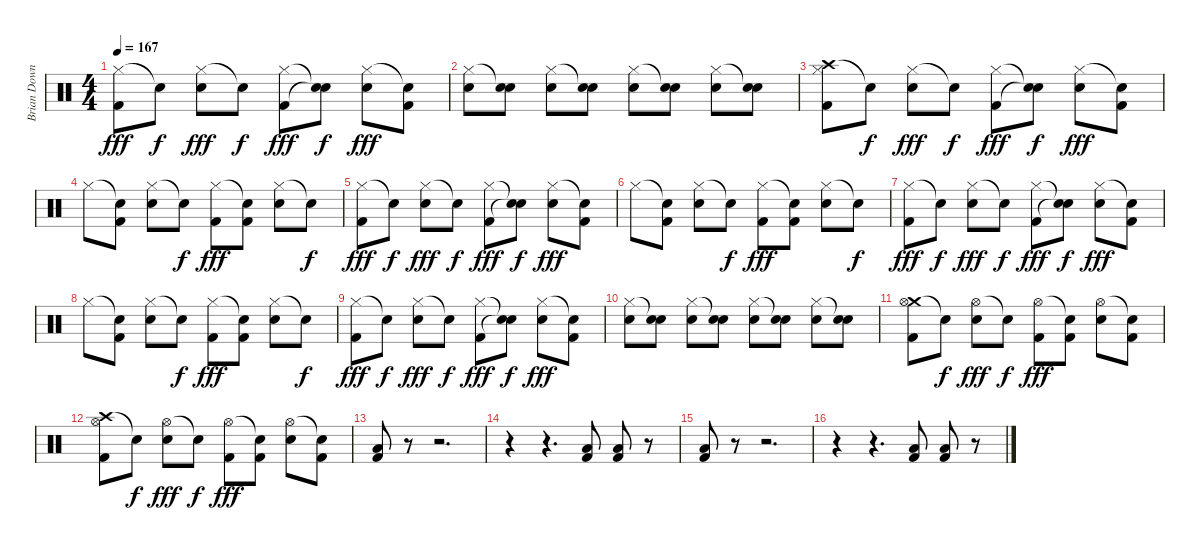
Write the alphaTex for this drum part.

\track ("Brian Downey" "Brian Down") {instrument percussion}
\staff {score}
\articulation defaults
\ts (4 4)
\tempo 167
\clef neutral
\ks c
("Hi-Hat (closed)" "Kick (hit) 2").8{dy fff} "Snare (hit)"{t}.8{dy f} ("Hi-Hat (closed)" "Electric Snare (hit)").8{dy fff} "Snare (hit)"{t}.8{dy f} ("Hi-Hat (closed)" "Kick (hit) 2").8{dy fff} ("Snare (hit)"{t} "Electric Snare (hit)"{t}).8{dy f} ("Hi-Hat (closed)" "Electric Snare (hit)").8{dy fff} ("Snare (hit)"{t} "Kick (hit) 2").8 |
("Hi-Hat (closed)" "Electric Snare (hit)").8 ("Snare (hit)"{t} "Electric Snare (hit)").8 ("Hi-Hat (closed)" "Electric Snare (hit)").8 ("Snare (hit)"{t} "Electric Snare (hit)").8 ("Hi-Hat (closed)" "Electric Snare (hit)").8 ("Snare (hit)"{t} "Electric Snare (hit)").8 ("Hi-Hat (closed)" "Electric Snare (hit)").8 ("Snare (hit)"{t} "Electric Snare (hit)").8 |
("Crash high (hit)" "Hi-Hat (closed)" "Kick (hit) 2").8 "Snare (hit)"{t}.8{dy f} ("Hi-Hat (closed)" "Electric Snare (hit)").8{dy fff} "Snare (hit)"{t}.8{dy f} ("Hi-Hat (closed)" "Kick (hit) 2").8{dy fff} ("Snare (hit)"{t} "Electric Snare (hit)"{t}).8{dy f} ("Hi-Hat (closed)" "Electric Snare (hit)").8{dy fff} ("Snare (hit)"{t} "Kick (hit) 2").8 |
"Hi-Hat (closed)".8 ("Snare (hit)"{t} "Kick (hit) 2").8 ("Hi-Hat (closed)" "Electric Snare (hit)").8 "Snare (hit)"{t}.8{dy f} ("Hi-Hat (closed)" "Kick (hit) 2").8{dy fff} ("Snare (hit)"{t} "Kick (hit) 2").8 ("Hi-Hat (closed)" "Electric Snare (hit)").8 "Snare (hit)"{t}.8{dy f} |
("Hi-Hat (closed)" "Kick (hit) 2").8{dy fff} "Snare (hit)"{t}.8{dy f} ("Hi-Hat (closed)" "Electric Snare (hit)").8{dy fff} "Snare (hit)"{t}.8{dy f} ("Hi-Hat (closed)" "Kick (hit) 2").8{dy fff} ("Snare (hit)"{t} "Electric Snare (hit)"{t}).8{dy f} ("Hi-Hat (closed)" "Electric Snare (hit)").8{dy fff} ("Snare (hit)"{t} "Kick (hit) 2").8 |
"Hi-Hat (closed)".8 ("Snare (hit)"{t} "Kick (hit) 2").8 ("Hi-Hat (closed)" "Electric Snare (hit)").8 "Snare (hit)"{t}.8{dy f} ("Hi-Hat (closed)" "Kick (hit) 2").8{dy fff} ("Snare (hit)"{t} "Kick (hit) 2").8 ("Hi-Hat (closed)" "Electric Snare (hit)").8 "Snare (hit)"{t}.8{dy f} |
("Hi-Hat (closed)" "Kick (hit) 2").8{dy fff} "Snare (hit)"{t}.8{dy f} ("Hi-Hat (closed)" "Electric Snare (hit)").8{dy fff} "Snare (hit)"{t}.8{dy f} ("Hi-Hat (closed)" "Kick (hit) 2").8{dy fff} ("Snare (hit)"{t} "Electric Snare (hit)"{t}).8{dy f} ("Hi-Hat (closed)" "Electric Snare (hit)").8{dy fff} ("Snare (hit)"{t} "Kick (hit) 2").8 |
"Hi-Hat (closed)".8 ("Snare (hit)"{t} "Kick (hit) 2").8 ("Hi-Hat (closed)" "Electric Snare (hit)").8 "Snare (hit)"{t}.8{dy f} ("Hi-Hat (closed)" "Kick (hit) 2").8{dy fff} ("Snare (hit)"{t} "Kick (hit) 2").8 ("Hi-Hat (closed)" "Electric Snare (hit)").8 "Snare (hit)"{t}.8{dy f} |
("Hi-Hat (closed)" "Kick (hit) 2").8{dy fff} "Snare (hit)"{t}.8{dy f} ("Hi-Hat (closed)" "Electric Snare (hit)").8{dy fff} "Snare (hit)"{t}.8{dy f} ("Hi-Hat (closed)" "Kick (hit) 2").8{dy fff} ("Snare (hit)"{t} "Electric Snare (hit)"{t}).8{dy f} ("Hi-Hat (closed)" "Electric Snare (hit)").8{dy fff} ("Snare (hit)"{t} "Kick (hit) 2").8 |
("Hi-Hat (closed)" "Electric Snare (hit)").8 ("Snare (hit)"{t} "Electric Snare (hit)").8 ("Hi-Hat (closed)" "Electric Snare (hit)").8 ("Snare (hit)"{t} "Electric Snare (hit)").8 ("Hi-Hat (closed)" "Electric Snare (hit)").8 ("Snare (hit)"{t} "Electric Snare (hit)").8 ("Hi-Hat (closed)" "Electric Snare (hit)").8 ("Snare (hit)"{t} "Electric Snare (hit)").8 |
("Crash medium (hit)" "Hi-Hat (open)" "Kick (hit) 2").8 "Snare (hit)"{t}.8{dy f} ("Hi-Hat (open)" "Electric Snare (hit)").8{dy fff} "Snare (hit)"{t}.8{dy f} ("Hi-Hat (open)" "Kick (hit) 2").8{dy fff} ("Snare (hit)"{t} "Kick (hit) 2").8 ("Hi-Hat (open)" "Electric Snare (hit)").8 ("Snare (hit)"{t} "Kick (hit) 2").8 |
("Crash high (hit)" "Hi-Hat (open)" "Kick (hit) 2").8 "Snare (hit)"{t}.8{dy f} ("Hi-Hat (open)" "Electric Snare (hit)").8{dy fff} "Snare (hit)"{t}.8{dy f} ("Hi-Hat (open)" "Kick (hit) 2").8{dy fff} ("Snare (hit)"{t} "Kick (hit) 2").8 ("Hi-Hat (open)" "Electric Snare (hit)").8 ("Snare (hit)"{t} "Kick (hit) 2").8 |
("Low Floor Tom (hit)" "Kick (hit) 2").8 r.8 r.2{d} |
r.4 r.4{d} ("Low Floor Tom (hit)" "Kick (hit) 2").8 ("Low Floor Tom (hit)" "Kick (hit) 2").8 r.8 |
("Low Floor Tom (hit)" "Kick (hit) 2").8 r.8 r.2{d} |
r.4 r.4{d} ("Low Floor Tom (hit)" "Kick (hit) 2").8 ("Low Floor Tom (hit)" "Kick (hit) 2").8 r.8
